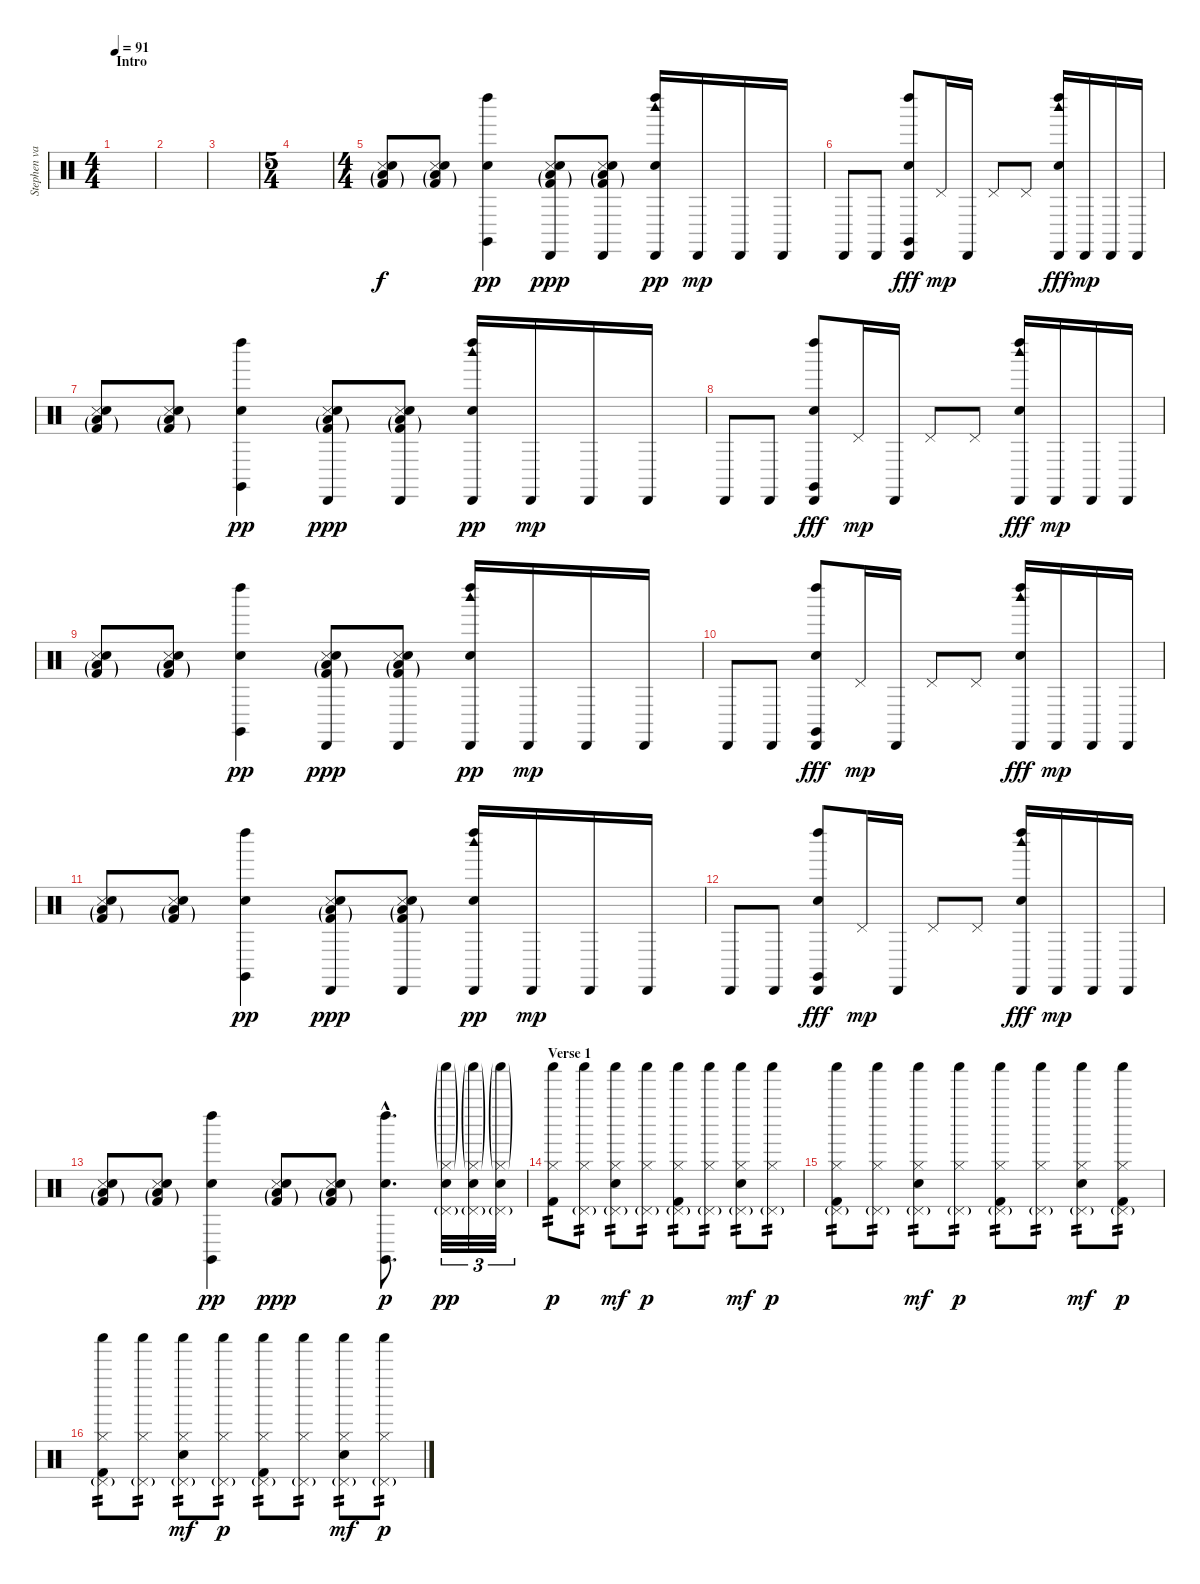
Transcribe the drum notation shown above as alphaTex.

\track ("Stephen van Haestregt" "Stephen va") {instrument percussion}
\staff {score}
\articulation defaults
\ts (4 4)
\section ("" "Intro")
\tempo 91
\clef neutral
\ks c
|
|
|
\ts (5 4)
|
\ts (4 4)
("Snare (side stick) 3" "Electric Snare (hit)" "Low Tom (hit)"{g} "Kick (hit) 2"{g}).8 ("Snare (side stick) 3" "Electric Snare (hit)" "Low Tom (hit)"{g} "Kick (hit) 2"{g}).8 ("Claves (hit)" "Electric Snare (hit)" "Left Maraca (hit)").4{dy pp} ("Cabasa (hit)" "Low Tom (hit)"{g} "Kick (hit) 2"{g} "Snare (side stick) 3" "Electric Snare (hit)").8{dy ppp} ("Cabasa (hit)" "Low Tom (hit)"{g} "Kick (hit) 2"{g} "Snare (side stick) 3" "Electric Snare (hit)").8 ("Woodblock high (hit)" "Cabasa (hit)" "Electric Snare (hit)" "Left Maraca (hit)").16{dy pp} "Cabasa (hit)".16{dy mp} "Cabasa (hit)".16 "Cabasa (hit)".16 |
"Cabasa (hit)".8 "Cabasa (hit)".8 ("Cabasa (hit)" "Electric Snare (hit)" "Claves (hit)" "Left Maraca (hit)").8{dy fff} "Pedal Hi-Hat (hit)".16{dy mp} "Cabasa (hit)".16 "Pedal Hi-Hat (hit)".8 "Pedal Hi-Hat (hit)".8 ("Cabasa (hit)" "Electric Snare (hit)" "Woodblock high (hit)" "Left Maraca (hit)").16{dy fff} "Cabasa (hit)".16{dy mp} "Cabasa (hit)".16 "Cabasa (hit)".16 |
("Snare (side stick) 3" "Electric Snare (hit)" "Low Tom (hit)"{g} "Kick (hit) 2"{g}).8 ("Snare (side stick) 3" "Electric Snare (hit)" "Low Tom (hit)"{g} "Kick (hit) 2"{g}).8 ("Claves (hit)" "Electric Snare (hit)" "Left Maraca (hit)").4{dy pp} ("Cabasa (hit)" "Low Tom (hit)"{g} "Kick (hit) 2"{g} "Snare (side stick) 3" "Electric Snare (hit)").8{dy ppp} ("Cabasa (hit)" "Low Tom (hit)"{g} "Kick (hit) 2"{g} "Snare (side stick) 3" "Electric Snare (hit)").8 ("Woodblock high (hit)" "Cabasa (hit)" "Electric Snare (hit)" "Left Maraca (hit)").16{dy pp} "Cabasa (hit)".16{dy mp} "Cabasa (hit)".16 "Cabasa (hit)".16 |
"Cabasa (hit)".8 "Cabasa (hit)".8 ("Cabasa (hit)" "Electric Snare (hit)" "Claves (hit)" "Left Maraca (hit)").8{dy fff} "Pedal Hi-Hat (hit)".16{dy mp} "Cabasa (hit)".16 "Pedal Hi-Hat (hit)".8 "Pedal Hi-Hat (hit)".8 ("Cabasa (hit)" "Electric Snare (hit)" "Woodblock high (hit)" "Left Maraca (hit)").16{dy fff} "Cabasa (hit)".16{dy mp} "Cabasa (hit)".16 "Cabasa (hit)".16 |
("Snare (side stick) 3" "Electric Snare (hit)" "Low Tom (hit)"{g} "Kick (hit) 2"{g}).8 ("Snare (side stick) 3" "Electric Snare (hit)" "Low Tom (hit)"{g} "Kick (hit) 2"{g}).8 ("Claves (hit)" "Electric Snare (hit)" "Left Maraca (hit)").4{dy pp} ("Cabasa (hit)" "Low Tom (hit)"{g} "Kick (hit) 2"{g} "Snare (side stick) 3" "Electric Snare (hit)").8{dy ppp} ("Cabasa (hit)" "Low Tom (hit)"{g} "Kick (hit) 2"{g} "Snare (side stick) 3" "Electric Snare (hit)").8 ("Woodblock high (hit)" "Cabasa (hit)" "Electric Snare (hit)" "Left Maraca (hit)").16{dy pp} "Cabasa (hit)".16{dy mp} "Cabasa (hit)".16 "Cabasa (hit)".16 |
"Cabasa (hit)".8 "Cabasa (hit)".8 ("Cabasa (hit)" "Electric Snare (hit)" "Claves (hit)" "Left Maraca (hit)").8{dy fff} "Pedal Hi-Hat (hit)".16{dy mp} "Cabasa (hit)".16 "Pedal Hi-Hat (hit)".8 "Pedal Hi-Hat (hit)".8 ("Cabasa (hit)" "Electric Snare (hit)" "Woodblock high (hit)" "Left Maraca (hit)").16{dy fff} "Cabasa (hit)".16{dy mp} "Cabasa (hit)".16 "Cabasa (hit)".16 |
("Snare (side stick) 3" "Electric Snare (hit)" "Low Tom (hit)"{g} "Kick (hit) 2"{g}).8 ("Snare (side stick) 3" "Electric Snare (hit)" "Low Tom (hit)"{g} "Kick (hit) 2"{g}).8 ("Claves (hit)" "Electric Snare (hit)" "Left Maraca (hit)").4{dy pp} ("Cabasa (hit)" "Low Tom (hit)"{g} "Kick (hit) 2"{g} "Snare (side stick) 3" "Electric Snare (hit)").8{dy ppp} ("Cabasa (hit)" "Low Tom (hit)"{g} "Kick (hit) 2"{g} "Snare (side stick) 3" "Electric Snare (hit)").8 ("Woodblock high (hit)" "Cabasa (hit)" "Electric Snare (hit)" "Left Maraca (hit)").16{dy pp} "Cabasa (hit)".16{dy mp} "Cabasa (hit)".16 "Cabasa (hit)".16 |
"Cabasa (hit)".8 "Cabasa (hit)".8 ("Cabasa (hit)" "Electric Snare (hit)" "Claves (hit)" "Left Maraca (hit)").8{dy fff} "Pedal Hi-Hat (hit)".16{dy mp} "Cabasa (hit)".16 "Pedal Hi-Hat (hit)".8 "Pedal Hi-Hat (hit)".8 ("Cabasa (hit)" "Electric Snare (hit)" "Woodblock high (hit)" "Left Maraca (hit)").16{dy fff} "Cabasa (hit)".16{dy mp} "Cabasa (hit)".16 "Cabasa (hit)".16 |
("Snare (side stick) 3" "Electric Snare (hit)" "Low Tom (hit)"{g} "Kick (hit) 2"{g}).8 ("Snare (side stick) 3" "Electric Snare (hit)" "Low Tom (hit)"{g} "Kick (hit) 2"{g}).8 ("Claves (hit)" "Electric Snare (hit)" "Left Maraca (hit)").4{dy pp} ("Snare (side stick) 3" "Electric Snare (hit)" "Low Tom (hit)"{g} "Kick (hit) 2"{g}).8{dy ppp} ("Snare (side stick) 3" "Electric Snare (hit)" "Low Tom (hit)"{g} "Kick (hit) 2"{g}).8 ("Claves (hit)"{hac} "Electric Snare (hit)"{hac} "Left Maraca (hit)"{hac}).8{d dy p} ("Hi-Hat (closed)"{g} "Pedal Hi-Hat (hit)"{g} "Shaker (hit)"{g} "Electric Snare (hit)").32{tu (3 2) dy pp volume 13} ("Hi-Hat (closed)"{g} "Pedal Hi-Hat (hit)"{g} "Shaker (hit)"{g} "Electric Snare (hit)").32{tu (3 2)} ("Hi-Hat (closed)"{g} "Pedal Hi-Hat (hit)"{g} "Shaker (hit)"{g} "Electric Snare (hit)").32{tu (3 2)} |
\section ("" "Verse 1")
("Hi-Hat (closed)" "Shaker (hit)" "Kick (hit) 2").8{tp 2 dy p volume 13} ("Hi-Hat (closed)" "Pedal Hi-Hat (hit)"{g} "Shaker (hit)").8{tp 2} ("Hi-Hat (closed)" "Pedal Hi-Hat (hit)"{g} "Shaker (hit)" "Electric Snare (hit)").8{tp 2 dy mf} ("Hi-Hat (closed)" "Pedal Hi-Hat (hit)"{g} "Shaker (hit)").8{tp 2 dy p} ("Hi-Hat (closed)" "Pedal Hi-Hat (hit)"{g} "Shaker (hit)" "Kick (hit) 2").8{tp 2} ("Hi-Hat (closed)" "Pedal Hi-Hat (hit)"{g} "Shaker (hit)").8{tp 2} ("Hi-Hat (closed)" "Pedal Hi-Hat (hit)"{g} "Shaker (hit)" "Electric Snare (hit)").8{tp 2 dy mf} ("Hi-Hat (closed)" "Pedal Hi-Hat (hit)"{g} "Shaker (hit)").8{tp 2 dy p} |
("Hi-Hat (closed)" "Pedal Hi-Hat (hit)"{g} "Shaker (hit)" "Kick (hit) 2").8{tp 2} ("Hi-Hat (closed)" "Pedal Hi-Hat (hit)"{g} "Shaker (hit)").8{tp 2} ("Hi-Hat (closed)" "Pedal Hi-Hat (hit)"{g} "Shaker (hit)" "Electric Snare (hit)").8{tp 2 dy mf} ("Hi-Hat (closed)" "Pedal Hi-Hat (hit)"{g} "Shaker (hit)").8{tp 2 dy p} ("Hi-Hat (closed)" "Pedal Hi-Hat (hit)"{g} "Shaker (hit)" "Kick (hit) 2").8{tp 2} ("Hi-Hat (closed)" "Pedal Hi-Hat (hit)"{g} "Shaker (hit)").8{tp 2} ("Hi-Hat (closed)" "Pedal Hi-Hat (hit)"{g} "Shaker (hit)" "Electric Snare (hit)").8{tp 2 dy mf} ("Hi-Hat (closed)" "Pedal Hi-Hat (hit)"{g} "Shaker (hit)" "Kick (hit) 2").8{tp 2 dy p} |
("Hi-Hat (closed)" "Pedal Hi-Hat (hit)"{g} "Shaker (hit)" "Kick (hit) 2").8{tp 2} ("Hi-Hat (closed)" "Pedal Hi-Hat (hit)"{g} "Shaker (hit)").8{tp 2} ("Hi-Hat (closed)" "Pedal Hi-Hat (hit)"{g} "Shaker (hit)" "Electric Snare (hit)").8{tp 2 dy mf} ("Hi-Hat (closed)" "Pedal Hi-Hat (hit)"{g} "Shaker (hit)").8{tp 2 dy p} ("Hi-Hat (closed)" "Pedal Hi-Hat (hit)"{g} "Shaker (hit)" "Kick (hit) 2").8{tp 2} ("Hi-Hat (closed)" "Pedal Hi-Hat (hit)"{g} "Shaker (hit)").8{tp 2} ("Hi-Hat (closed)" "Pedal Hi-Hat (hit)"{g} "Shaker (hit)" "Electric Snare (hit)").8{tp 2 dy mf} ("Hi-Hat (closed)" "Pedal Hi-Hat (hit)"{g} "Shaker (hit)").8{tp 2 dy p}
